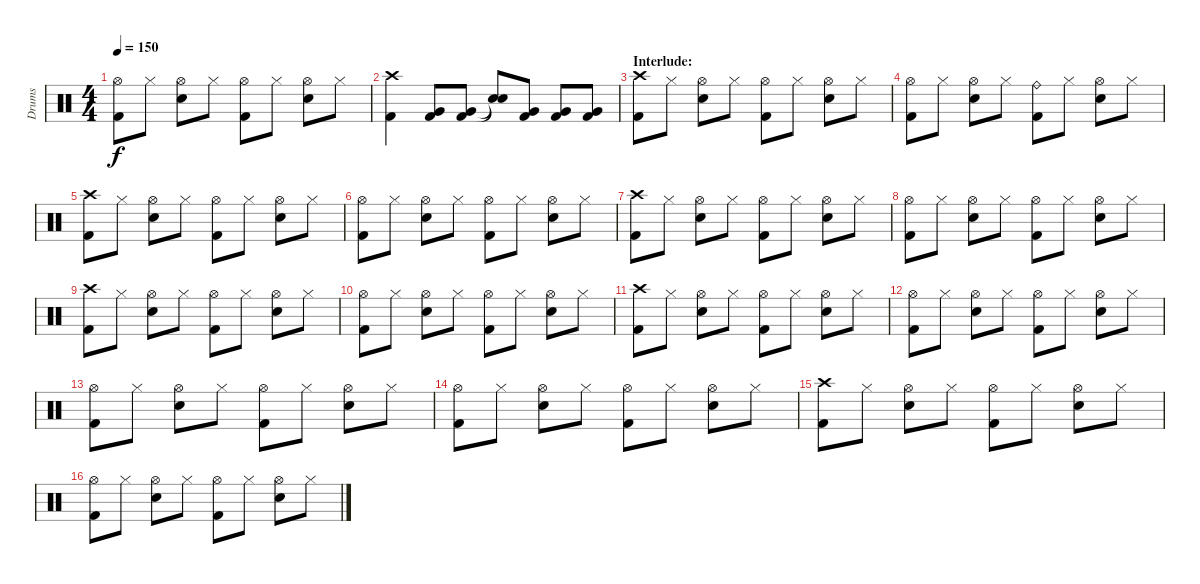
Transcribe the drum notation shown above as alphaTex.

\track ("Drums" "Drums") {instrument percussion}
\staff {score}
\articulation defaults
\ts (4 4)
\tempo 150
\clef neutral
\ks c
("Hi-Hat (open)" "Kick (hit) 2").8{dy f} "Hi-Hat (closed)".8 ("Hi-Hat (open)" "Snare (hit) 2").8 "Hi-Hat (closed)".8 ("Hi-Hat (open)" "Kick (hit) 2").8 "Hi-Hat (closed)".8 ("Hi-Hat (open)" "Snare (hit) 2").8 "Hi-Hat (closed)".8 |
("Crash high (hit)" "Kick (hit) 2").4 ("Very Low Tom (hit)" "Kick (hit) 2").8 ("Very Low Tom (hit)" "Kick (hit) 2").8 ("Snare (hit)"{t} "Snare (hit)"{t}).8 ("Very Low Tom (hit)" "Kick (hit) 2").8 ("Very Low Tom (hit)" "Kick (hit) 2").8 ("Very Low Tom (hit)" "Kick (hit) 2").8 |
\section ("" "Interlude:")
("Crash high (hit)" "Kick (hit) 2").8 "Hi-Hat (closed)".8 ("Hi-Hat (open)" "Snare (hit) 2").8 "Hi-Hat (closed)".8 ("Hi-Hat (open)" "Kick (hit) 2").8 "Hi-Hat (closed)".8 ("Hi-Hat (open)" "Snare (hit) 2").8 "Hi-Hat (closed)".8 |
("Hi-Hat (open)" "Kick (hit) 2").8 "Hi-Hat (closed)".8 ("Hi-Hat (open)" "Snare (hit) 2").8 "Hi-Hat (closed)".8 ("Ride (bell)" "Kick (hit) 2").8 "Hi-Hat (closed)".8 ("Hi-Hat (open)" "Snare (hit) 2").8 "Hi-Hat (closed)".8 |
("Crash high (hit)" "Kick (hit) 2").8 "Hi-Hat (closed)".8 ("Hi-Hat (open)" "Snare (hit) 2").8 "Hi-Hat (closed)".8 ("Hi-Hat (open)" "Kick (hit) 2").8 "Hi-Hat (closed)".8 ("Hi-Hat (open)" "Snare (hit) 2").8 "Hi-Hat (closed)".8 |
("Hi-Hat (open)" "Kick (hit) 2").8 "Hi-Hat (closed)".8 ("Hi-Hat (open)" "Snare (hit) 2").8 "Hi-Hat (closed)".8 ("Hi-Hat (open)" "Kick (hit) 2").8 "Hi-Hat (closed)".8 ("Hi-Hat (open)" "Snare (hit) 2").8 "Hi-Hat (closed)".8 |
("Crash high (hit)" "Kick (hit) 2").8 "Hi-Hat (closed)".8 ("Hi-Hat (open)" "Snare (hit) 2").8 "Hi-Hat (closed)".8 ("Hi-Hat (open)" "Kick (hit) 2").8 "Hi-Hat (closed)".8 ("Hi-Hat (open)" "Snare (hit) 2").8 "Hi-Hat (closed)".8 |
("Hi-Hat (open)" "Kick (hit) 2").8 "Hi-Hat (closed)".8 ("Hi-Hat (open)" "Snare (hit) 2").8 "Hi-Hat (closed)".8 ("Hi-Hat (open)" "Kick (hit) 2").8 "Hi-Hat (closed)".8 ("Hi-Hat (open)" "Snare (hit) 2").8 "Hi-Hat (closed)".8 |
("Crash high (hit)" "Kick (hit) 2").8 "Hi-Hat (closed)".8 ("Hi-Hat (open)" "Snare (hit) 2").8 "Hi-Hat (closed)".8 ("Hi-Hat (open)" "Kick (hit) 2").8 "Hi-Hat (closed)".8 ("Hi-Hat (open)" "Snare (hit) 2").8 "Hi-Hat (closed)".8 |
("Hi-Hat (open)" "Kick (hit) 2").8 "Hi-Hat (closed)".8 ("Hi-Hat (open)" "Snare (hit) 2").8 "Hi-Hat (closed)".8 ("Hi-Hat (open)" "Kick (hit) 2").8 "Hi-Hat (closed)".8 ("Hi-Hat (open)" "Snare (hit) 2").8 "Hi-Hat (closed)".8 |
("Crash high (hit)" "Kick (hit) 2").8 "Hi-Hat (closed)".8 ("Hi-Hat (open)" "Snare (hit) 2").8 "Hi-Hat (closed)".8 ("Hi-Hat (open)" "Kick (hit) 2").8 "Hi-Hat (closed)".8 ("Hi-Hat (open)" "Snare (hit) 2").8 "Hi-Hat (closed)".8 |
("Hi-Hat (open)" "Kick (hit) 2").8 "Hi-Hat (closed)".8 ("Hi-Hat (open)" "Snare (hit) 2").8 "Hi-Hat (closed)".8 ("Hi-Hat (open)" "Kick (hit) 2").8 "Hi-Hat (closed)".8 ("Hi-Hat (open)" "Snare (hit) 2").8 "Hi-Hat (closed)".8 |
("Hi-Hat (open)" "Kick (hit) 2").8 "Hi-Hat (closed)".8 ("Hi-Hat (open)" "Snare (hit) 2").8 "Hi-Hat (closed)".8 ("Hi-Hat (open)" "Kick (hit) 2").8 "Hi-Hat (closed)".8 ("Hi-Hat (open)" "Snare (hit) 2").8 "Hi-Hat (closed)".8 |
("Hi-Hat (open)" "Kick (hit) 2").8 "Hi-Hat (closed)".8 ("Hi-Hat (open)" "Snare (hit) 2").8 "Hi-Hat (closed)".8 ("Hi-Hat (open)" "Kick (hit) 2").8 "Hi-Hat (closed)".8 ("Hi-Hat (open)" "Snare (hit) 2").8 "Hi-Hat (closed)".8 |
("Crash high (hit)" "Kick (hit) 2").8 "Hi-Hat (closed)".8 ("Hi-Hat (open)" "Snare (hit) 2").8 "Hi-Hat (closed)".8 ("Hi-Hat (open)" "Kick (hit) 2").8 "Hi-Hat (closed)".8 ("Hi-Hat (open)" "Snare (hit) 2").8 "Hi-Hat (closed)".8 |
("Hi-Hat (open)" "Kick (hit) 2").8 "Hi-Hat (closed)".8 ("Hi-Hat (open)" "Snare (hit) 2").8 "Hi-Hat (closed)".8 ("Hi-Hat (open)" "Kick (hit) 2").8 "Hi-Hat (closed)".8 ("Hi-Hat (open)" "Snare (hit) 2").8 "Hi-Hat (closed)".8
